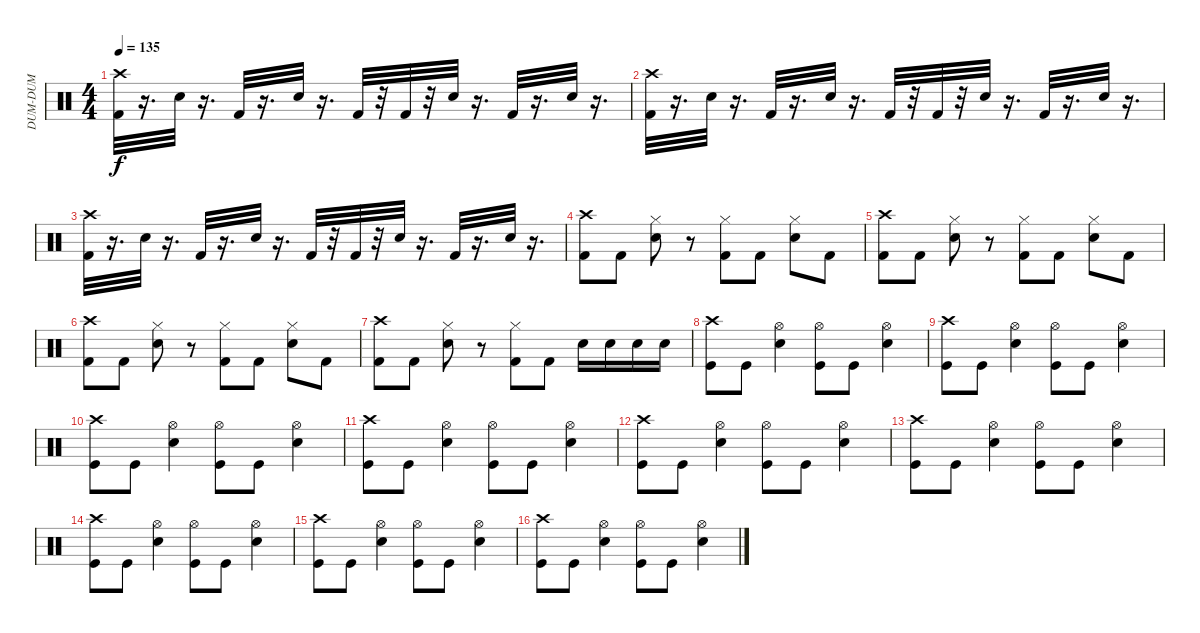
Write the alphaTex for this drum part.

\track ("DUM-DUM" "DUM-DUM") {instrument percussion}
\staff {score}
\articulation defaults
\ts (4 4)
\tempo 135
\clef neutral
\ks c
("Kick (hit) 2" "Crash high (hit)").32{dy f} r.16{d} "Electric Snare (hit)".32 r.16{d} "Kick (hit) 2".32 r.16{d} "Electric Snare (hit)".32 r.16{d} "Kick (hit) 2".32 r.32 "Kick (hit) 2".32 r.32 "Electric Snare (hit)".32 r.16{d} "Kick (hit) 2".32 r.16{d} "Electric Snare (hit)".32 r.16{d} |
("Kick (hit) 2" "Crash high (hit)").32 r.16{d} "Electric Snare (hit)".32 r.16{d} "Kick (hit) 2".32 r.16{d} "Electric Snare (hit)".32 r.16{d} "Kick (hit) 2".32 r.32 "Kick (hit) 2".32 r.32 "Electric Snare (hit)".32 r.16{d} "Kick (hit) 2".32 r.16{d} "Electric Snare (hit)".32 r.16{d} |
("Kick (hit) 2" "Crash high (hit)").32 r.16{d} "Electric Snare (hit)".32 r.16{d} "Kick (hit) 2".32 r.16{d} "Electric Snare (hit)".32 r.16{d} "Kick (hit) 2".32 r.32 "Kick (hit) 2".32 r.32 "Electric Snare (hit)".32 r.16{d} "Kick (hit) 2".32 r.16{d} "Electric Snare (hit)".32 r.16{d} |
("Crash high (hit)" "Kick (hit) 2").8 "Kick (hit) 2".8 ("Hi-Hat (closed)" "Electric Snare (hit)").8 r.8 ("Hi-Hat (closed)" "Kick (hit) 2").8 "Kick (hit) 2".8 ("Hi-Hat (closed)" "Electric Snare (hit)").8 "Kick (hit) 2".8 |
("Crash high (hit)" "Kick (hit) 2").8 "Kick (hit) 2".8 ("Hi-Hat (closed)" "Electric Snare (hit)").8 r.8 ("Hi-Hat (closed)" "Kick (hit) 2").8 "Kick (hit) 2".8 ("Hi-Hat (closed)" "Electric Snare (hit)").8 "Kick (hit) 2".8 |
("Crash high (hit)" "Kick (hit) 2").8 "Kick (hit) 2".8 ("Hi-Hat (closed)" "Electric Snare (hit)").8 r.8 ("Hi-Hat (closed)" "Kick (hit) 2").8 "Kick (hit) 2".8 ("Hi-Hat (closed)" "Electric Snare (hit)").8 "Kick (hit) 2".8 |
("Crash high (hit)" "Kick (hit) 2").8 "Kick (hit) 2".8 ("Hi-Hat (closed)" "Electric Snare (hit)").8 r.8 ("Hi-Hat (closed)" "Kick (hit) 2").8 "Kick (hit) 2".8 "Electric Snare (hit)".16 "Electric Snare (hit)".16 "Electric Snare (hit)".16 "Electric Snare (hit)".16 |
("Crash high (hit)" "Kick (hit)").8 "Kick (hit)".8 ("Hi-Hat (open)" "Electric Snare (hit)").4 ("Hi-Hat (open)" "Kick (hit)").8 "Kick (hit)".8 ("Hi-Hat (open)" "Electric Snare (hit)").4 |
("Crash high (hit)" "Kick (hit)").8 "Kick (hit)".8 ("Hi-Hat (open)" "Electric Snare (hit)").4 ("Hi-Hat (open)" "Kick (hit)").8 "Kick (hit)".8 ("Hi-Hat (open)" "Electric Snare (hit)").4 |
("Crash high (hit)" "Kick (hit)").8 "Kick (hit)".8 ("Hi-Hat (open)" "Electric Snare (hit)").4 ("Hi-Hat (open)" "Kick (hit)").8 "Kick (hit)".8 ("Hi-Hat (open)" "Electric Snare (hit)").4 |
("Crash high (hit)" "Kick (hit)").8 "Kick (hit)".8 ("Hi-Hat (open)" "Electric Snare (hit)").4 ("Hi-Hat (open)" "Kick (hit)").8 "Kick (hit)".8 ("Hi-Hat (open)" "Electric Snare (hit)").4 |
("Crash high (hit)" "Kick (hit)").8 "Kick (hit)".8 ("Hi-Hat (open)" "Electric Snare (hit)").4 ("Hi-Hat (open)" "Kick (hit)").8 "Kick (hit)".8 ("Hi-Hat (open)" "Electric Snare (hit)").4 |
("Crash high (hit)" "Kick (hit)").8 "Kick (hit)".8 ("Hi-Hat (open)" "Electric Snare (hit)").4 ("Hi-Hat (open)" "Kick (hit)").8 "Kick (hit)".8 ("Hi-Hat (open)" "Electric Snare (hit)").4 |
("Crash high (hit)" "Kick (hit)").8 "Kick (hit)".8 ("Hi-Hat (open)" "Electric Snare (hit)").4 ("Hi-Hat (open)" "Kick (hit)").8 "Kick (hit)".8 ("Hi-Hat (open)" "Electric Snare (hit)").4 |
("Crash high (hit)" "Kick (hit)").8 "Kick (hit)".8 ("Hi-Hat (open)" "Electric Snare (hit)").4 ("Hi-Hat (open)" "Kick (hit)").8 "Kick (hit)".8 ("Hi-Hat (open)" "Electric Snare (hit)").4 |
("Crash high (hit)" "Kick (hit)").8 "Kick (hit)".8 ("Hi-Hat (open)" "Electric Snare (hit)").4 ("Hi-Hat (open)" "Kick (hit)").8 "Kick (hit)".8 ("Hi-Hat (open)" "Electric Snare (hit)").4
